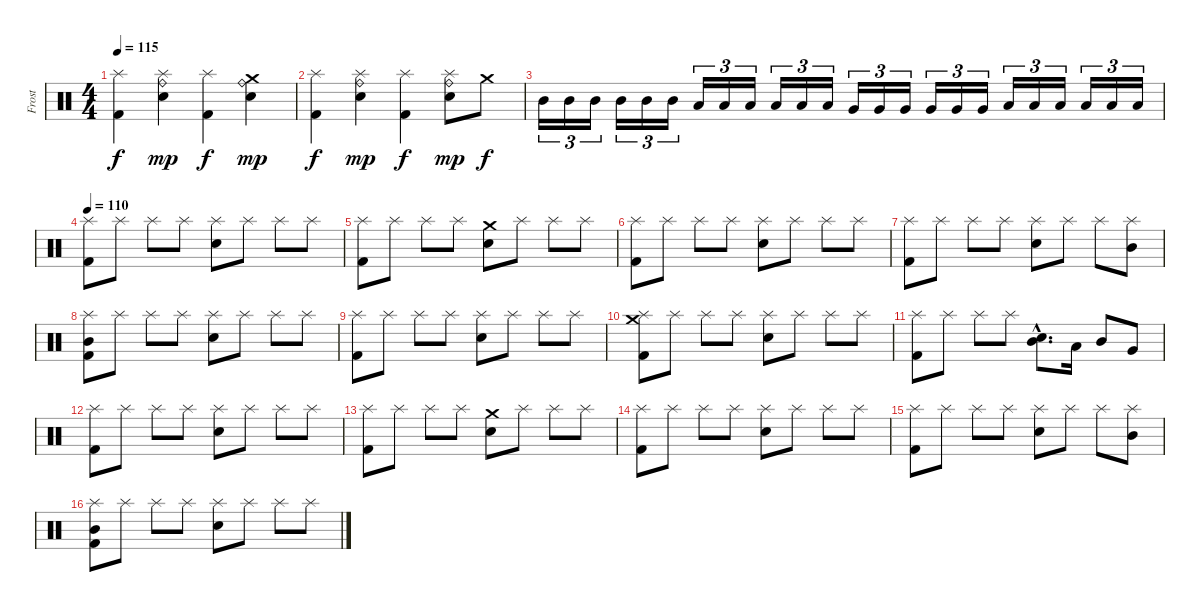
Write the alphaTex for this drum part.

\track ("Frost" "Frost") {instrument percussion}
\staff {score}
\articulation defaults
\ts (4 4)
\tempo 115
\clef neutral
\ks c
("Kick (hit) 2" "Splash (hit)").4{dy f} ("Snare (hit) 2" "Splash (hit)" "Ride (bell)").4{dy mp} ("Kick (hit) 2" "Splash (hit)").4{dy f} ("Snare (hit) 2" "Crash medium (hit)" "Ride (bell)").4{dy mp} |
("Kick (hit) 2" "Splash (hit)").4{dy f} ("Snare (hit) 2" "Splash (hit)" "Ride (bell)").4{dy mp} ("Kick (hit) 2" "Splash (hit)").4{dy f} ("Snare (hit) 2" "Splash (hit)" "Ride (bell)").8{dy mp} "Crash medium (hit)".8{dy f} |
"Mid Tom (hit)".16{tu (3 2)} "Mid Tom (hit)".16{tu (3 2)} "Mid Tom (hit)".16{tu (3 2)} "Mid Tom (hit)".16{tu (3 2)} "Mid Tom (hit)".16{tu (3 2)} "Mid Tom (hit)".16{tu (3 2)} "Low Tom (hit)".16{tu (3 2)} "Low Tom (hit)".16{tu (3 2)} "Low Tom (hit)".16{tu (3 2)} "Low Tom (hit)".16{tu (3 2)} "Low Tom (hit)".16{tu (3 2)} "Low Tom (hit)".16{tu (3 2)} "Very Low Tom (hit)".16{tu (3 2)} "Very Low Tom (hit)".16{tu (3 2)} "Very Low Tom (hit)".16{tu (3 2)} "Very Low Tom (hit)".16{tu (3 2)} "Very Low Tom (hit)".16{tu (3 2)} "Very Low Tom (hit)".16{tu (3 2)} "Low Floor Tom (hit)".16{tu (3 2)} "Low Floor Tom (hit)".16{tu (3 2)} "Low Floor Tom (hit)".16{tu (3 2)} "Low Floor Tom (hit)".16{tu (3 2)} "Low Floor Tom (hit)".16{tu (3 2)} "Low Floor Tom (hit)".16{tu (3 2)} |
\tempo 110
("Kick (hit) 2" "Splash (hit)").8 "Splash (hit)".8 "Splash (hit)".8 "Splash (hit)".8 ("Snare (hit) 2" "Splash (hit)").8 "Splash (hit)".8 "Splash (hit)".8 "Splash (hit)".8 |
("Kick (hit) 2" "Splash (hit)").8 "Splash (hit)".8 "Splash (hit)".8 "Splash (hit)".8 ("Snare (hit) 2" "Crash medium (hit)").8 "Splash (hit)".8 "Splash (hit)".8 "Splash (hit)".8 |
("Kick (hit) 2" "Splash (hit)").8 "Splash (hit)".8 "Splash (hit)".8 "Splash (hit)".8 ("Snare (hit) 2" "Splash (hit)").8 "Splash (hit)".8 "Splash (hit)".8 "Splash (hit)".8 |
("Kick (hit) 2" "Splash (hit)").8 "Splash (hit)".8 "Splash (hit)".8 "Splash (hit)".8 ("Snare (hit) 2" "Splash (hit)").8 "Splash (hit)".8 "Splash (hit)".8 ("Mid Tom (hit)" "Splash (hit)").8 |
("Kick (hit) 2" "Mid Tom (hit)" "Splash (hit)").8 "Splash (hit)".8 "Splash (hit)".8 "Splash (hit)".8 ("Snare (hit) 2" "Splash (hit)").8 "Splash (hit)".8 "Splash (hit)".8 "Splash (hit)".8 |
("Kick (hit) 2" "Splash (hit)").8 "Splash (hit)".8 "Splash (hit)".8 "Splash (hit)".8 ("Snare (hit) 2" "Splash (hit)").8 "Splash (hit)".8 "Splash (hit)".8 "Splash (hit)".8 |
("Kick (hit) 2" "Crash medium (hit)" "Splash (hit)").8 "Splash (hit)".8 "Splash (hit)".8 "Splash (hit)".8 ("Snare (hit) 2" "Splash (hit)").8 "Splash (hit)".8 "Splash (hit)".8 "Splash (hit)".8 |
("Kick (hit) 2" "Splash (hit)").8 "Splash (hit)".8 "Splash (hit)".8 "Splash (hit)".8 ("Snare (hit) 2"{hac} "Mid Tom (hit)"{hac}).8{d} "Low Tom (hit)".16 "Mid Tom (hit)".8 "Very Low Tom (hit)".8 |
("Kick (hit) 2" "Splash (hit)").8 "Splash (hit)".8 "Splash (hit)".8 "Splash (hit)".8 ("Snare (hit) 2" "Splash (hit)").8 "Splash (hit)".8 "Splash (hit)".8 "Splash (hit)".8 |
("Kick (hit) 2" "Splash (hit)").8 "Splash (hit)".8 "Splash (hit)".8 "Splash (hit)".8 ("Snare (hit) 2" "Crash medium (hit)").8 "Splash (hit)".8 "Splash (hit)".8 "Splash (hit)".8 |
("Kick (hit) 2" "Splash (hit)").8 "Splash (hit)".8 "Splash (hit)".8 "Splash (hit)".8 ("Snare (hit) 2" "Splash (hit)").8 "Splash (hit)".8 "Splash (hit)".8 "Splash (hit)".8 |
("Kick (hit) 2" "Splash (hit)").8 "Splash (hit)".8 "Splash (hit)".8 "Splash (hit)".8 ("Snare (hit) 2" "Splash (hit)").8 "Splash (hit)".8 "Splash (hit)".8 ("Mid Tom (hit)" "Splash (hit)").8 |
("Kick (hit) 2" "Mid Tom (hit)" "Splash (hit)").8 "Splash (hit)".8 "Splash (hit)".8 "Splash (hit)".8 ("Snare (hit) 2" "Splash (hit)").8 "Splash (hit)".8 "Splash (hit)".8 "Splash (hit)".8
